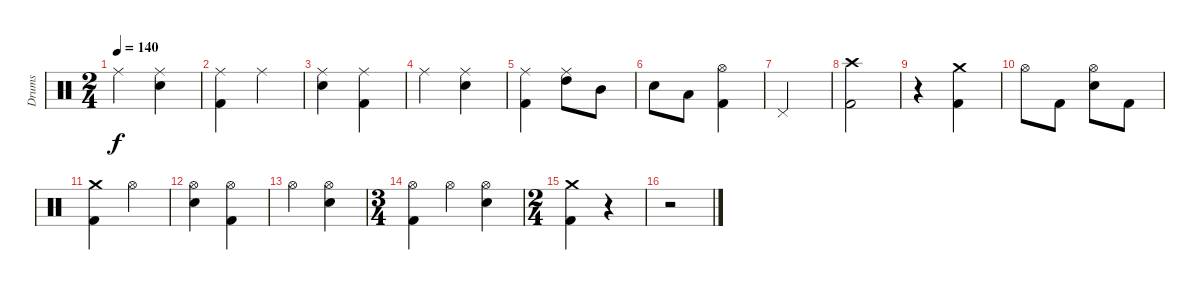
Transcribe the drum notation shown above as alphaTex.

\track ("Drums" "Drums") {instrument percussion}
\staff {score}
\articulation defaults
\ts (2 4)
\tempo 140
\clef neutral
\ks c "Ride (middle)".4{dy f}
("Electric Snare (hit)" "Ride (middle)").4 |
("Kick (hit) 2" "Ride (middle)").4 "Ride (middle)".4 |
("Electric Snare (hit)" "Ride (middle)").4 ("Kick (hit) 2" "Ride (middle)").4 |
"Ride (middle)".4 ("Electric Snare (hit)" "Ride (middle)").4 |
("Kick (hit) 2" "Ride (middle)").4 ("High Tom (hit)" "Ride (middle)").8 "Mid Tom (hit)".8 |
"Electric Snare (hit)".8 "Low Tom (hit)".8 ("Kick (hit) 2" "Hi-Hat (open)").4 |
"Pedal Hi-Hat (hit)".2 |
("Kick (hit) 2" "Crash high (hit)").2 |
r.4 ("Kick (hit) 2" "Crash medium (hit)").4 |
"Hi-Hat (open)".8 "Kick (hit) 2".8 ("Electric Snare (hit)" "Hi-Hat (open)").8 "Kick (hit) 2".8 |
("Kick (hit) 2" "Crash medium (hit)").4 "Hi-Hat (open)".4 |
("Electric Snare (hit)" "Hi-Hat (open)").4 ("Kick (hit) 2" "Hi-Hat (open)").4 |
"Hi-Hat (open)".4 ("Electric Snare (hit)" "Hi-Hat (open)").4 |
\ts (3 4)
("Kick (hit) 2" "Hi-Hat (open)").4 "Hi-Hat (open)".4 ("Electric Snare (hit)" "Hi-Hat (open)").4 |
\ts (2 4)
("Kick (hit) 2" "Crash medium (hit)").4 r.4 |
r.2
